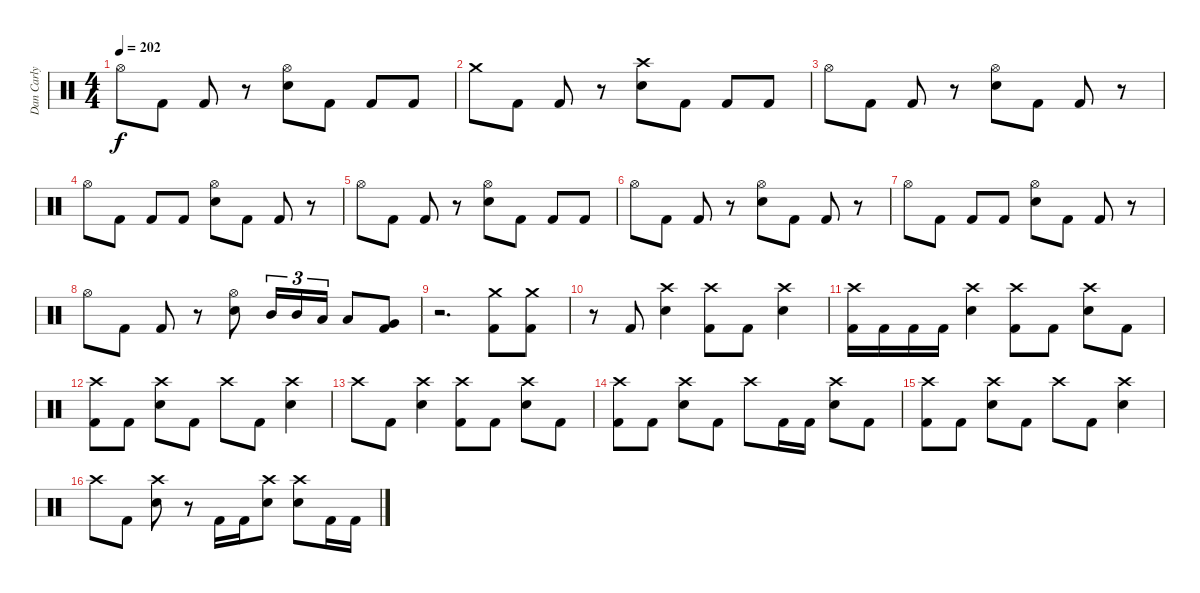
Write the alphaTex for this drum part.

\track ("Dan Carly" "Dan Carly") {instrument percussion}
\staff {score}
\articulation defaults
\ts (4 4)
\tempo 202
\clef neutral
\ks c "Hi-Hat (open)".8{dy f} "Kick (hit) 2".8 "Kick (hit) 2".8
r.8 ("Hi-Hat (open)" "Electric Snare (hit)").8 "Kick (hit) 2".8 "Kick (hit) 2".8 "Kick (hit) 2".8 |
"Crash medium (hit)".8 "Kick (hit) 2".8 "Kick (hit) 2".8 r.8 ("Crash high (hit)" "Electric Snare (hit)").8 "Kick (hit) 2".8 "Kick (hit) 2".8 "Kick (hit) 2".8 |
"Hi-Hat (open)".8 "Kick (hit) 2".8 "Kick (hit) 2".8 r.8 ("Hi-Hat (open)" "Electric Snare (hit)").8 "Kick (hit) 2".8 "Kick (hit) 2".8 r.8 |
"Hi-Hat (open)".8 "Kick (hit) 2".8 "Kick (hit) 2".8 "Kick (hit) 2".8 ("Hi-Hat (open)" "Electric Snare (hit)").8 "Kick (hit) 2".8 "Kick (hit) 2".8 r.8 |
"Hi-Hat (open)".8 "Kick (hit) 2".8 "Kick (hit) 2".8 r.8 ("Hi-Hat (open)" "Electric Snare (hit)").8 "Kick (hit) 2".8 "Kick (hit) 2".8 "Kick (hit) 2".8 |
"Hi-Hat (open)".8 "Kick (hit) 2".8 "Kick (hit) 2".8 r.8 ("Hi-Hat (open)" "Electric Snare (hit)").8 "Kick (hit) 2".8 "Kick (hit) 2".8 r.8 |
"Hi-Hat (open)".8 "Kick (hit) 2".8 "Kick (hit) 2".8 "Kick (hit) 2".8 ("Hi-Hat (open)" "Electric Snare (hit)").8 "Kick (hit) 2".8 "Kick (hit) 2".8 r.8 |
"Hi-Hat (open)".8 "Kick (hit) 2".8 "Kick (hit) 2".8 r.8 ("Hi-Hat (open)" "Electric Snare (hit)").8 "Mid Tom (hit)".16{tu (3 2)} "Mid Tom (hit)".16{tu (3 2)} "Low Tom (hit)".16{tu (3 2)} "Low Tom (hit)".8 ("Very Low Tom (hit)" "Kick (hit) 2").8 |
r.2{d} ("Crash medium (hit)" "Kick (hit) 2").8 ("Crash medium (hit)" "Kick (hit) 2").8 |
r.8 "Kick (hit) 2".8 ("Crash high (hit)" "Electric Snare (hit)").4 ("Crash high (hit)" "Kick (hit) 2").8 "Kick (hit) 2".8 ("Crash high (hit)" "Electric Snare (hit)").4 |
("Crash high (hit)" "Kick (hit) 2").16 "Kick (hit) 2".16 "Kick (hit) 2".16 "Kick (hit) 2".16 ("Crash high (hit)" "Electric Snare (hit)").4 ("Crash high (hit)" "Kick (hit) 2").8 "Kick (hit) 2".8 ("Crash high (hit)" "Electric Snare (hit)").8 "Kick (hit) 2".8 |
("Crash high (hit)" "Kick (hit) 2").8 "Kick (hit) 2".8 ("Crash high (hit)" "Electric Snare (hit)").8 "Kick (hit) 2".8 "Crash high (hit)".8 "Kick (hit) 2".8 ("Crash high (hit)" "Electric Snare (hit)").4 |
"Crash high (hit)".8 "Kick (hit) 2".8 ("Crash high (hit)" "Electric Snare (hit)").4 ("Crash high (hit)" "Kick (hit) 2").8 "Kick (hit) 2".8 ("Crash high (hit)" "Electric Snare (hit)").8 "Kick (hit) 2".8 |
("Crash high (hit)" "Kick (hit) 2").8 "Kick (hit) 2".8 ("Crash high (hit)" "Electric Snare (hit)").8 "Kick (hit) 2".8 "Crash high (hit)".8 "Kick (hit) 2".16 "Kick (hit) 2".16 ("Crash high (hit)" "Electric Snare (hit)").8 "Kick (hit) 2".8 |
("Crash high (hit)" "Kick (hit) 2").8 "Kick (hit) 2".8 ("Crash high (hit)" "Electric Snare (hit)").8 "Kick (hit) 2".8 "Crash high (hit)".8 "Kick (hit) 2".8 ("Crash high (hit)" "Electric Snare (hit)").4 |
"Crash high (hit)".8 "Kick (hit) 2".8 ("Crash high (hit)" "Electric Snare (hit)").8 r.8 "Kick (hit) 2".16 "Kick (hit) 2".16 ("Crash high (hit)" "Electric Snare (hit)").8 ("Crash high (hit)" "Electric Snare (hit)").8 "Kick (hit) 2".16 "Kick (hit) 2".16
